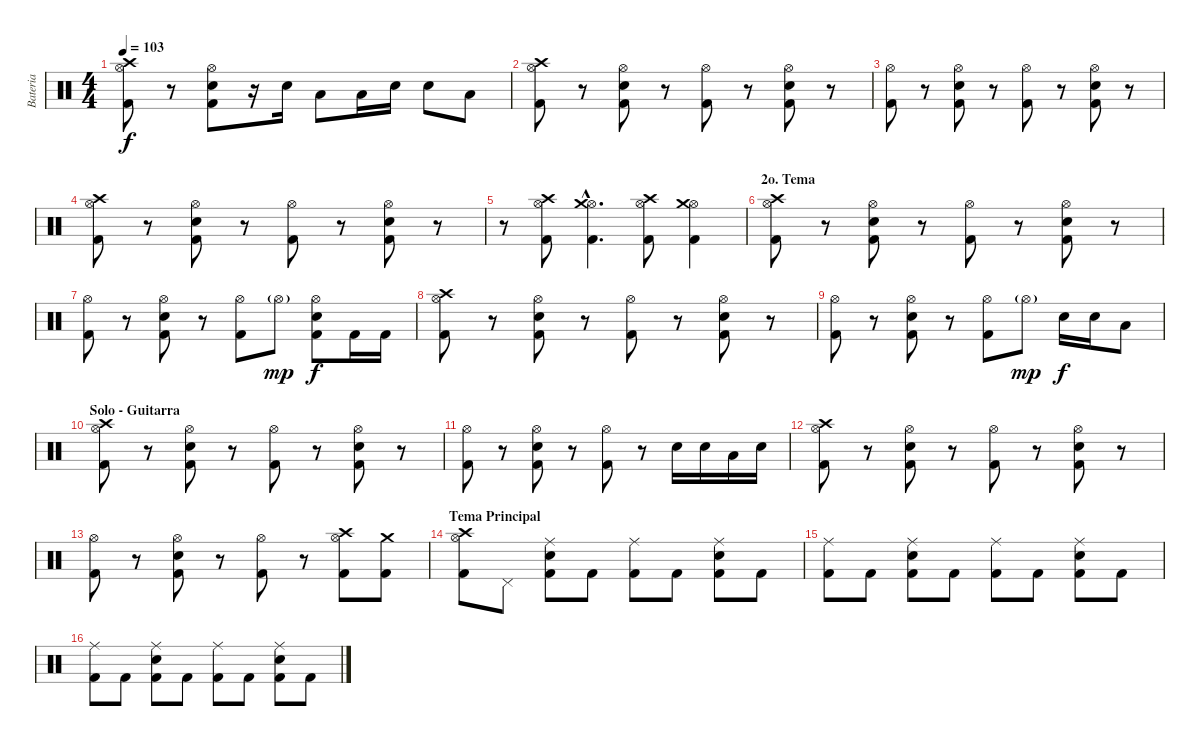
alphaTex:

\track ("Bateria" "Bateria") {instrument percussion}
\staff {score}
\articulation defaults
\ts (4 4)
\tempo 103
\clef neutral
\ks c
("Hi-Hat (open)" "Kick (hit) 2" "Crash high (hit)").8{dy f} r.8 ("Hi-Hat (open)" "Snare (hit) 2" "Kick (hit) 2").8 r.16 "Snare (hit) 2".16 "Low Tom (hit)".8 "Low Tom (hit)".16 "Snare (hit) 2".16 "Snare (hit) 2".8 "Low Tom (hit)".8 |
("Hi-Hat (open)" "Kick (hit) 2" "Crash high (hit)").8 r.8 ("Hi-Hat (open)" "Snare (hit) 2" "Kick (hit) 2").8 r.8 ("Hi-Hat (open)" "Kick (hit) 2").8 r.8 ("Hi-Hat (open)" "Snare (hit) 2" "Kick (hit) 2").8 r.8 |
("Hi-Hat (open)" "Kick (hit) 2").8 r.8 ("Hi-Hat (open)" "Snare (hit) 2" "Kick (hit) 2").8 r.8 ("Hi-Hat (open)" "Kick (hit) 2").8 r.8 ("Hi-Hat (open)" "Snare (hit) 2" "Kick (hit) 2").8 r.8 |
("Hi-Hat (open)" "Kick (hit) 2" "Crash high (hit)").8 r.8 ("Hi-Hat (open)" "Snare (hit) 2" "Kick (hit) 2").8 r.8 ("Hi-Hat (open)" "Kick (hit) 2").8 r.8 ("Hi-Hat (open)" "Snare (hit) 2" "Kick (hit) 2").8 r.8 |
r.8 ("Hi-Hat (open)" "Kick (hit) 2" "Crash high (hit)").8 ("Hi-Hat (open)"{hac} "Kick (hit) 2"{hac} "Crash medium (hit)"{hac}).4{d} ("Hi-Hat (open)" "Kick (hit) 2" "Crash high (hit)").8 ("Hi-Hat (open)" "Kick (hit) 2" "Crash medium (hit)").4 |
\section ("" "2o. Tema")
("Hi-Hat (open)" "Kick (hit) 2" "Crash high (hit)").8 r.8 ("Hi-Hat (open)" "Snare (hit) 2" "Kick (hit) 2").8 r.8 ("Hi-Hat (open)" "Kick (hit) 2").8 r.8 ("Hi-Hat (open)" "Snare (hit) 2" "Kick (hit) 2").8 r.8 |
("Hi-Hat (open)" "Kick (hit) 2").8 r.8 ("Hi-Hat (open)" "Snare (hit) 2" "Kick (hit) 2").8 r.8 ("Hi-Hat (open)" "Kick (hit) 2").8 "Hi-Hat (open)"{g}.8{dy mp} ("Hi-Hat (open)" "Snare (hit) 2" "Kick (hit) 2").8{dy f} "Kick (hit) 2".16 "Kick (hit) 2".16 |
("Hi-Hat (open)" "Kick (hit) 2" "Crash high (hit)").8 r.8 ("Hi-Hat (open)" "Snare (hit) 2" "Kick (hit) 2").8 r.8 ("Hi-Hat (open)" "Kick (hit) 2").8 r.8 ("Hi-Hat (open)" "Snare (hit) 2" "Kick (hit) 2").8 r.8 |
("Hi-Hat (open)" "Kick (hit) 2").8 r.8 ("Hi-Hat (open)" "Snare (hit) 2" "Kick (hit) 2").8 r.8 ("Hi-Hat (open)" "Kick (hit) 2").8 "Hi-Hat (open)"{g}.8{dy mp} "Snare (hit) 2".16{dy f} "Snare (hit) 2".16 "Low Tom (hit)".8 |
\section ("" "Solo - Guitarra")
("Hi-Hat (open)" "Kick (hit) 2" "Crash high (hit)").8 r.8 ("Hi-Hat (open)" "Snare (hit) 2" "Kick (hit) 2").8 r.8 ("Hi-Hat (open)" "Kick (hit) 2").8 r.8 ("Hi-Hat (open)" "Snare (hit) 2" "Kick (hit) 2").8 r.8 |
("Hi-Hat (open)" "Kick (hit) 2").8 r.8 ("Hi-Hat (open)" "Snare (hit) 2" "Kick (hit) 2").8 r.8 ("Hi-Hat (open)" "Kick (hit) 2").8 r.8 "Snare (hit) 2".16 "Snare (hit) 2".16 "Low Tom (hit)".16 "Snare (hit) 2".16 |
("Hi-Hat (open)" "Kick (hit) 2" "Crash high (hit)").8 r.8 ("Hi-Hat (open)" "Snare (hit) 2" "Kick (hit) 2").8 r.8 ("Hi-Hat (open)" "Kick (hit) 2").8 r.8 ("Hi-Hat (open)" "Snare (hit) 2" "Kick (hit) 2").8 r.8 |
("Hi-Hat (open)" "Kick (hit) 2").8 r.8 ("Hi-Hat (open)" "Snare (hit) 2" "Kick (hit) 2").8 r.8 ("Hi-Hat (open)" "Kick (hit) 2").8 r.8 ("Hi-Hat (open)" "Kick (hit) 2" "Crash high (hit)").8 ("Kick (hit) 2" "Crash medium (hit)").8 |
\section ("" "Tema Principal")
("Hi-Hat (open)" "Kick (hit) 2" "Crash high (hit)").8 "Pedal Hi-Hat (hit)".8 ("Ride (middle)" "Snare (hit) 2" "Kick (hit) 2").8 "Kick (hit) 2".8 ("Ride (middle)" "Kick (hit) 2").8 "Kick (hit) 2".8 ("Ride (middle)" "Snare (hit) 2" "Kick (hit) 2").8 "Kick (hit) 2".8 |
("Ride (middle)" "Kick (hit) 2").8 "Kick (hit) 2".8 ("Ride (middle)" "Snare (hit) 2" "Kick (hit) 2").8 "Kick (hit) 2".8 ("Ride (middle)" "Kick (hit) 2").8 "Kick (hit) 2".8 ("Ride (middle)" "Snare (hit) 2" "Kick (hit) 2").8 "Kick (hit) 2".8 |
("Ride (middle)" "Kick (hit) 2").8 "Kick (hit) 2".8 ("Ride (middle)" "Snare (hit) 2" "Kick (hit) 2").8 "Kick (hit) 2".8 ("Ride (middle)" "Kick (hit) 2").8 "Kick (hit) 2".8 ("Ride (middle)" "Snare (hit) 2" "Kick (hit) 2").8 "Kick (hit) 2".8
